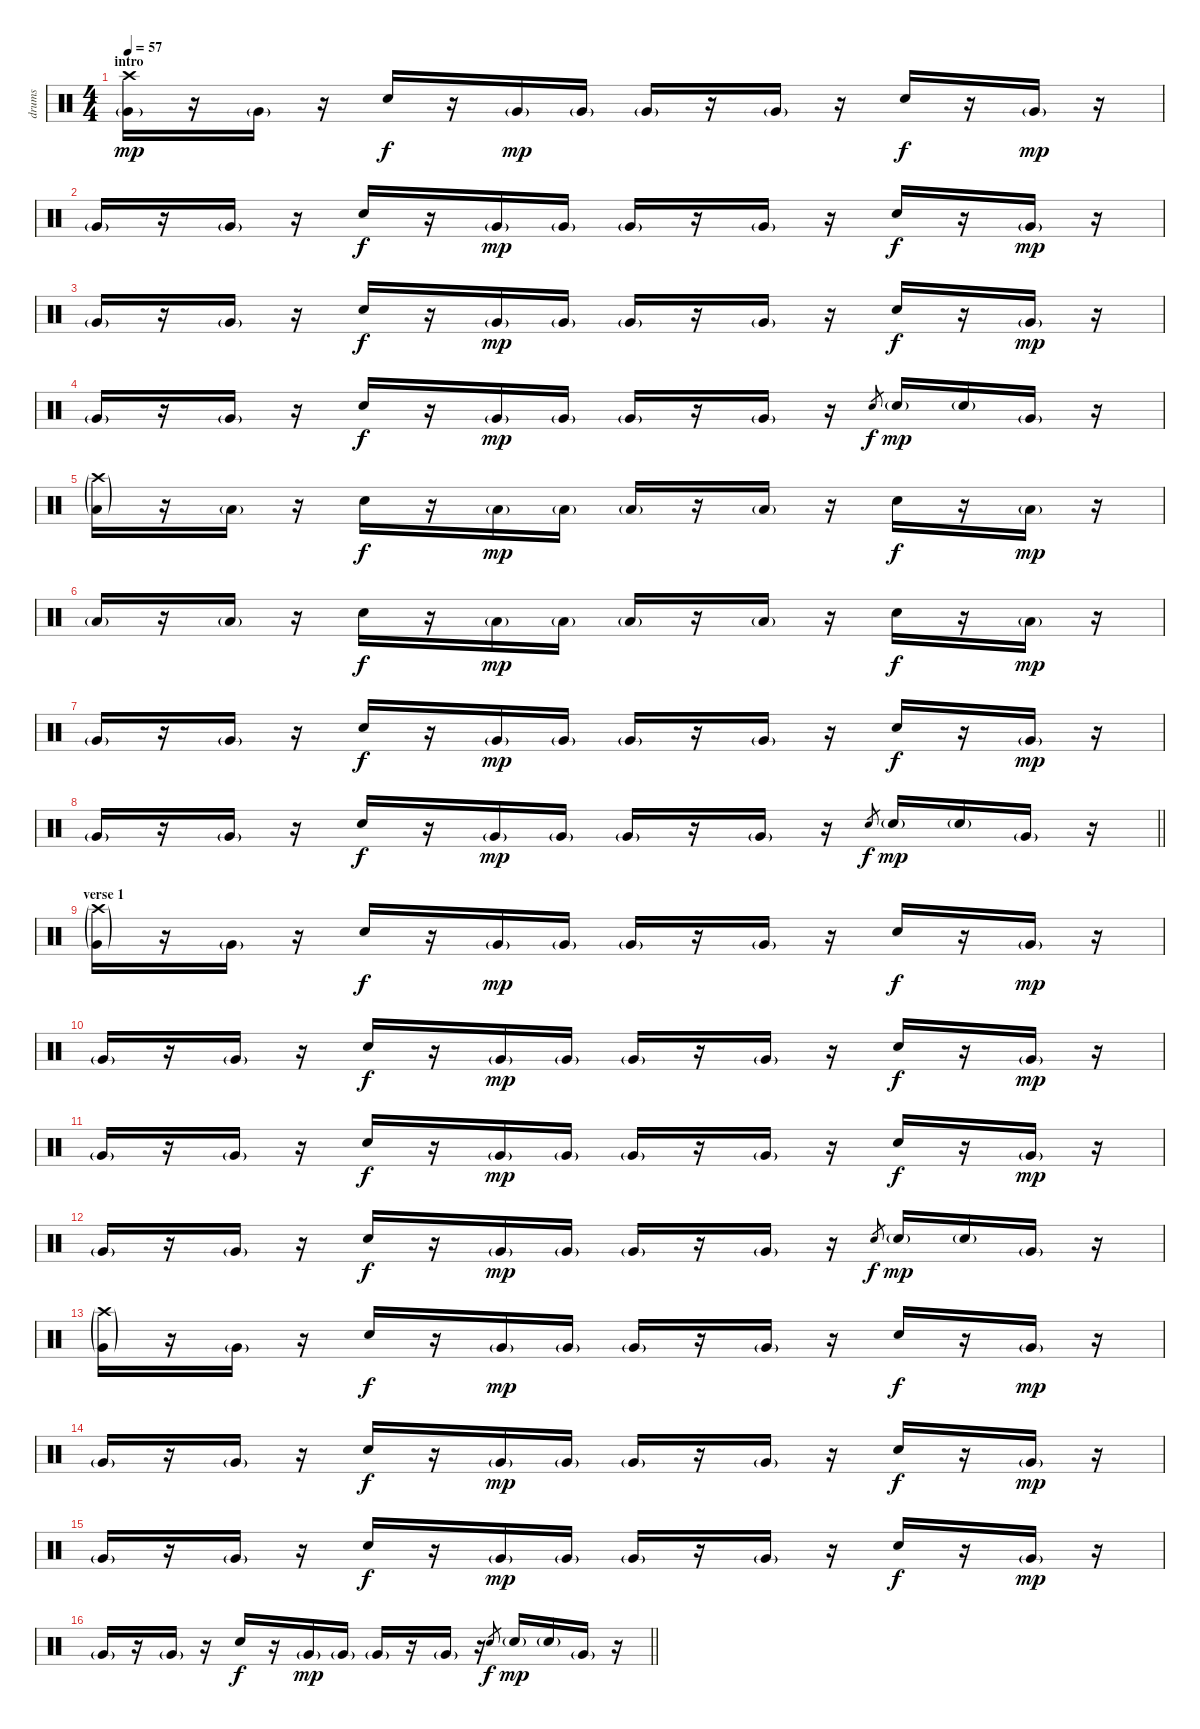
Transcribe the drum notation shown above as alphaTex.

\track ("drums" "drums") {instrument percussion}
\staff {score}
\articulation defaults
\ts (4 4)
\section ("" "intro")
\tempo 57
\clef neutral
\ks c
("Very Low Tom (hit)"{g} "Crash high (hit)").16{dy mp} r.16 "Very Low Tom (hit)"{g}.16 r.16 "Electric Snare (hit)".16{dy f} r.16 "Very Low Tom (hit)"{g}.16{dy mp} "Very Low Tom (hit)"{g}.16 "Very Low Tom (hit)"{g}.16 r.16 "Very Low Tom (hit)"{g}.16 r.16 "Electric Snare (hit)".16{dy f} r.16 "Very Low Tom (hit)"{g}.16{dy mp} r.16 |
"Very Low Tom (hit)"{g}.16 r.16 "Very Low Tom (hit)"{g}.16 r.16 "Electric Snare (hit)".16{dy f} r.16 "Very Low Tom (hit)"{g}.16{dy mp} "Very Low Tom (hit)"{g}.16 "Very Low Tom (hit)"{g}.16 r.16 "Very Low Tom (hit)"{g}.16 r.16 "Electric Snare (hit)".16{dy f} r.16 "Very Low Tom (hit)"{g}.16{dy mp} r.16 |
"Very Low Tom (hit)"{g}.16 r.16 "Very Low Tom (hit)"{g}.16 r.16 "Electric Snare (hit)".16{dy f} r.16 "Very Low Tom (hit)"{g}.16{dy mp} "Very Low Tom (hit)"{g}.16 "Very Low Tom (hit)"{g}.16 r.16 "Very Low Tom (hit)"{g}.16 r.16 "Electric Snare (hit)".16{dy f} r.16 "Very Low Tom (hit)"{g}.16{dy mp} r.16 |
"Very Low Tom (hit)"{g}.16 r.16 "Very Low Tom (hit)"{g}.16 r.16 "Electric Snare (hit)".16{dy f} r.16 "Very Low Tom (hit)"{g}.16{dy mp} "Very Low Tom (hit)"{g}.16 "Very Low Tom (hit)"{g}.16 r.16 "Very Low Tom (hit)"{g}.16 r.16 "Electric Snare (hit)".8{gr dy f} "Electric Snare (hit)"{g}.16{dy mp} "Electric Snare (hit)"{g}.16 "Very Low Tom (hit)"{g}.16 r.16 |
("Low Floor Tom (hit)"{g} "Crash high (hit)"{g}).16 r.16 "Low Floor Tom (hit)"{g}.16 r.16 "Electric Snare (hit)".16{dy f} r.16 "Low Floor Tom (hit)"{g}.16{dy mp} "Low Floor Tom (hit)"{g}.16 "Low Floor Tom (hit)"{g}.16 r.16 "Low Floor Tom (hit)"{g}.16 r.16 "Electric Snare (hit)".16{dy f} r.16 "Low Floor Tom (hit)"{g}.16{dy mp} r.16 |
"Low Floor Tom (hit)"{g}.16 r.16 "Low Floor Tom (hit)"{g}.16 r.16 "Electric Snare (hit)".16{dy f} r.16 "Low Floor Tom (hit)"{g}.16{dy mp} "Low Floor Tom (hit)"{g}.16 "Low Floor Tom (hit)"{g}.16 r.16 "Low Floor Tom (hit)"{g}.16 r.16 "Electric Snare (hit)".16{dy f} r.16 "Low Floor Tom (hit)"{g}.16{dy mp} r.16 |
"Very Low Tom (hit)"{g}.16 r.16 "Very Low Tom (hit)"{g}.16 r.16 "Electric Snare (hit)".16{dy f} r.16 "Very Low Tom (hit)"{g}.16{dy mp} "Very Low Tom (hit)"{g}.16 "Very Low Tom (hit)"{g}.16 r.16 "Very Low Tom (hit)"{g}.16 r.16 "Electric Snare (hit)".16{dy f} r.16 "Very Low Tom (hit)"{g}.16{dy mp} r.16 |
\barLineRight lightlight "Very Low Tom (hit)"{g}.16
r.16 "Very Low Tom (hit)"{g}.16 r.16 "Electric Snare (hit)".16{dy f} r.16 "Very Low Tom (hit)"{g}.16{dy mp} "Very Low Tom (hit)"{g}.16 "Very Low Tom (hit)"{g}.16 r.16 "Very Low Tom (hit)"{g}.16 r.16 "Electric Snare (hit)".8{gr dy f} "Electric Snare (hit)"{g}.16{dy mp} "Electric Snare (hit)"{g}.16 "Very Low Tom (hit)"{g}.16 r.16 |
\section ("" "verse 1")
("Very Low Tom (hit)"{g} "Crash high (hit)"{g}).16 r.16 "Very Low Tom (hit)"{g}.16 r.16 "Electric Snare (hit)".16{dy f} r.16 "Very Low Tom (hit)"{g}.16{dy mp} "Very Low Tom (hit)"{g}.16 "Very Low Tom (hit)"{g}.16 r.16 "Very Low Tom (hit)"{g}.16 r.16 "Electric Snare (hit)".16{dy f} r.16 "Very Low Tom (hit)"{g}.16{dy mp} r.16 |
"Very Low Tom (hit)"{g}.16 r.16 "Very Low Tom (hit)"{g}.16 r.16 "Electric Snare (hit)".16{dy f} r.16 "Very Low Tom (hit)"{g}.16{dy mp} "Very Low Tom (hit)"{g}.16 "Very Low Tom (hit)"{g}.16 r.16 "Very Low Tom (hit)"{g}.16 r.16 "Electric Snare (hit)".16{dy f} r.16 "Very Low Tom (hit)"{g}.16{dy mp} r.16 |
"Very Low Tom (hit)"{g}.16 r.16 "Very Low Tom (hit)"{g}.16 r.16 "Electric Snare (hit)".16{dy f} r.16 "Very Low Tom (hit)"{g}.16{dy mp} "Very Low Tom (hit)"{g}.16 "Very Low Tom (hit)"{g}.16 r.16 "Very Low Tom (hit)"{g}.16 r.16 "Electric Snare (hit)".16{dy f} r.16 "Very Low Tom (hit)"{g}.16{dy mp} r.16 |
"Very Low Tom (hit)"{g}.16 r.16 "Very Low Tom (hit)"{g}.16 r.16 "Electric Snare (hit)".16{dy f} r.16 "Very Low Tom (hit)"{g}.16{dy mp} "Very Low Tom (hit)"{g}.16 "Very Low Tom (hit)"{g}.16 r.16 "Very Low Tom (hit)"{g}.16 r.16 "Electric Snare (hit)".8{gr dy f} "Electric Snare (hit)"{g}.16{dy mp} "Electric Snare (hit)"{g}.16 "Very Low Tom (hit)"{g}.16 r.16 |
("Very Low Tom (hit)"{g} "Crash high (hit)"{g}).16 r.16 "Very Low Tom (hit)"{g}.16 r.16 "Electric Snare (hit)".16{dy f} r.16 "Very Low Tom (hit)"{g}.16{dy mp} "Very Low Tom (hit)"{g}.16 "Very Low Tom (hit)"{g}.16 r.16 "Very Low Tom (hit)"{g}.16 r.16 "Electric Snare (hit)".16{dy f} r.16 "Very Low Tom (hit)"{g}.16{dy mp} r.16 |
"Very Low Tom (hit)"{g}.16 r.16 "Very Low Tom (hit)"{g}.16 r.16 "Electric Snare (hit)".16{dy f} r.16 "Very Low Tom (hit)"{g}.16{dy mp} "Very Low Tom (hit)"{g}.16 "Very Low Tom (hit)"{g}.16 r.16 "Very Low Tom (hit)"{g}.16 r.16 "Electric Snare (hit)".16{dy f} r.16 "Very Low Tom (hit)"{g}.16{dy mp} r.16 |
"Very Low Tom (hit)"{g}.16 r.16 "Very Low Tom (hit)"{g}.16 r.16 "Electric Snare (hit)".16{dy f} r.16 "Very Low Tom (hit)"{g}.16{dy mp} "Very Low Tom (hit)"{g}.16 "Very Low Tom (hit)"{g}.16 r.16 "Very Low Tom (hit)"{g}.16 r.16 "Electric Snare (hit)".16{dy f} r.16 "Very Low Tom (hit)"{g}.16{dy mp} r.16 |
\barLineRight lightlight "Very Low Tom (hit)"{g}.16
r.16 "Very Low Tom (hit)"{g}.16 r.16 "Electric Snare (hit)".16{dy f} r.16 "Very Low Tom (hit)"{g}.16{dy mp} "Very Low Tom (hit)"{g}.16 "Very Low Tom (hit)"{g}.16 r.16 "Very Low Tom (hit)"{g}.16 r.16 "Electric Snare (hit)".8{gr dy f} "Electric Snare (hit)"{g}.16{dy mp} "Electric Snare (hit)"{g}.16 "Very Low Tom (hit)"{g}.16 r.16
